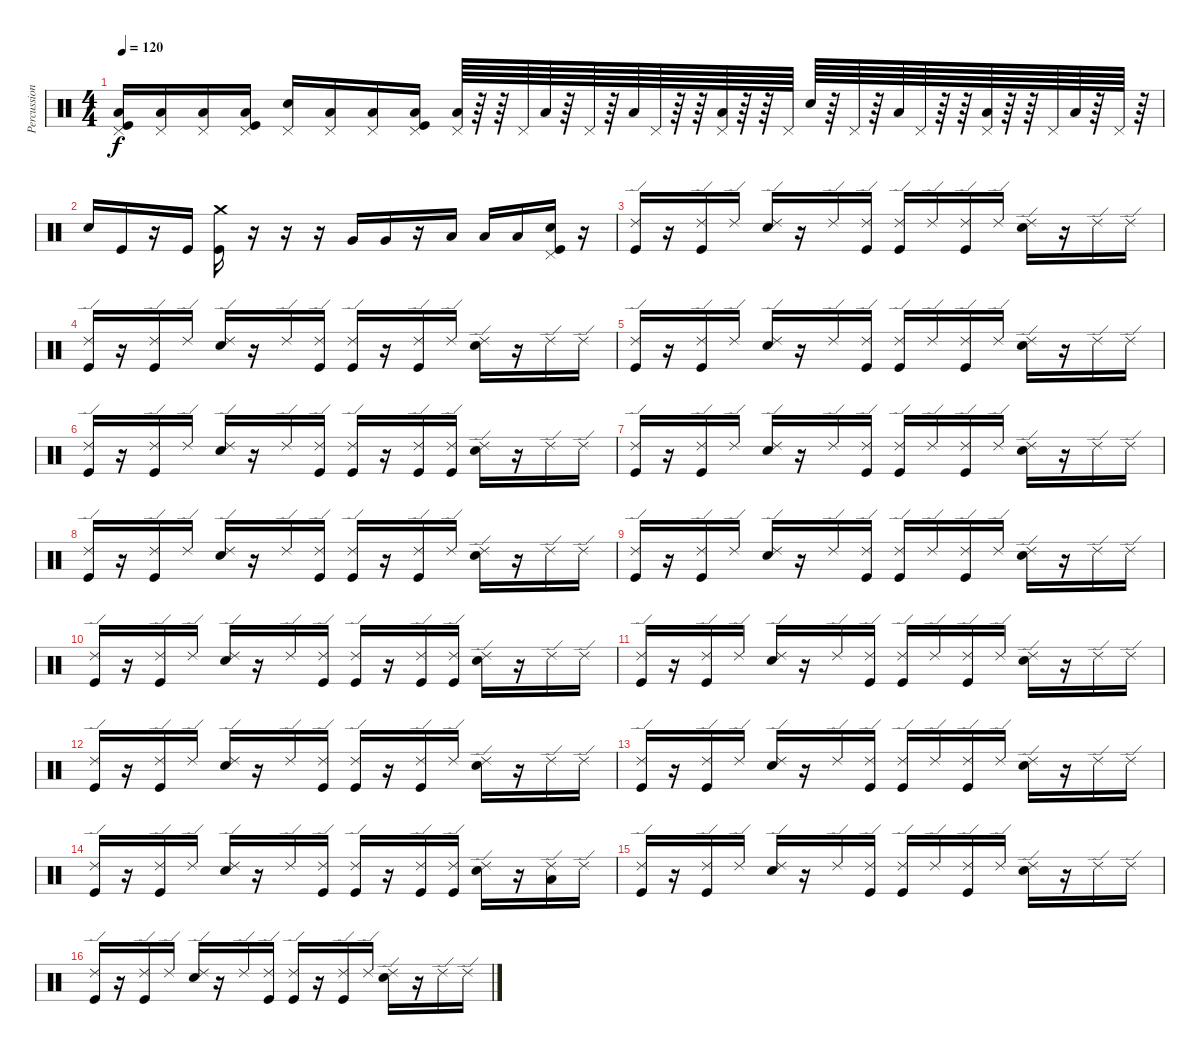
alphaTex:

\track ("Percussion" "Percussion") {instrument percussion}
\staff {score}
\articulation defaults
\ts (4 4)
\tempo 120
\clef neutral
\ks c
("Kick (hit)" "Low Floor Tom (hit)" "Pedal Hi-Hat (hit)").16{dy f} ("Low Floor Tom (hit)" "Pedal Hi-Hat (hit)").16 ("Low Floor Tom (hit)" "Pedal Hi-Hat (hit)").16 ("Kick (hit)" "Low Floor Tom (hit)" "Pedal Hi-Hat (hit)").16 ("Electric Snare (hit)" "Pedal Hi-Hat (hit)").16 ("Low Floor Tom (hit)" "Pedal Hi-Hat (hit)").16 ("Low Floor Tom (hit)" "Pedal Hi-Hat (hit)").16 ("Kick (hit)" "Low Floor Tom (hit)" "Pedal Hi-Hat (hit)").16 ("Low Floor Tom (hit)" "Pedal Hi-Hat (hit)").64 r.64 r.64 "Pedal Hi-Hat (hit)".64 "Low Floor Tom (hit)".64 r.64 "Pedal Hi-Hat (hit)".64 r.64 "Low Floor Tom (hit)".64 "Pedal Hi-Hat (hit)".64 r.64 r.64 ("Low Floor Tom (hit)" "Pedal Hi-Hat (hit)").64 r.64 r.64 "Pedal Hi-Hat (hit)".64 "Electric Snare (hit)".64 r.64 "Pedal Hi-Hat (hit)".64 r.64 "Low Floor Tom (hit)".64 "Pedal Hi-Hat (hit)".64 r.64 r.64 ("Low Floor Tom (hit)" "Pedal Hi-Hat (hit)").64 r.64 r.64 "Pedal Hi-Hat (hit)".64 "Low Floor Tom (hit)".64 r.64 "Pedal Hi-Hat (hit)".64 r.64 |
"Electric Snare (hit)".16 "Kick (hit)".16 r.16 "Kick (hit)".16 ("Kick (hit)" "Crash medium (hit)").16 r.16 r.16 r.16 "Very Low Tom (hit)".16 "Very Low Tom (hit)".16 r.16 "Low Floor Tom (hit)".16 "Low Floor Tom (hit)".16 "Low Floor Tom (hit)".16 ("Kick (hit)" "Electric Snare (hit)" "Pedal Hi-Hat (hit)").16 r.16 |
("Kick (hit)" "Ride (edge) 2").16 r.16 ("Kick (hit)" "Ride (edge) 2").16 "Ride (edge) 2".16 ("Electric Snare (hit)" "Ride (edge) 2").16 r.16 "Ride (edge) 2".16 ("Kick (hit)" "Ride (edge) 2").16 ("Kick (hit)" "Ride (edge) 2").16 "Ride (edge) 2".16 ("Kick (hit)" "Ride (edge) 2").16 "Ride (edge) 2".16 ("Electric Snare (hit)" "Ride (edge) 2").16 r.16 "Ride (edge) 2".16 "Ride (edge) 2".16 |
("Kick (hit)" "Ride (edge) 2").16 r.16 ("Kick (hit)" "Ride (edge) 2").16 "Ride (edge) 2".16 ("Electric Snare (hit)" "Ride (edge) 2").16 r.16 "Ride (edge) 2".16 ("Kick (hit)" "Ride (edge) 2").16 ("Kick (hit)" "Ride (edge) 2").16 r.16 ("Kick (hit)" "Ride (edge) 2").16 "Ride (edge) 2".16 ("Electric Snare (hit)" "Ride (edge) 2").16 r.16 "Ride (edge) 2".16 "Ride (edge) 2".16 |
("Kick (hit)" "Ride (edge) 2").16 r.16 ("Kick (hit)" "Ride (edge) 2").16 "Ride (edge) 2".16 ("Electric Snare (hit)" "Ride (edge) 2").16 r.16 "Ride (edge) 2".16 ("Kick (hit)" "Ride (edge) 2").16 ("Kick (hit)" "Ride (edge) 2").16 "Ride (edge) 2".16 ("Kick (hit)" "Ride (edge) 2").16 "Ride (edge) 2".16 ("Electric Snare (hit)" "Ride (edge) 2").16 r.16 "Ride (edge) 2".16 "Ride (edge) 2".16 |
("Kick (hit)" "Ride (edge) 2").16 r.16 ("Kick (hit)" "Ride (edge) 2").16 "Ride (edge) 2".16 ("Electric Snare (hit)" "Ride (edge) 2").16 r.16 "Ride (edge) 2".16 ("Kick (hit)" "Ride (edge) 2").16 ("Kick (hit)" "Ride (edge) 2").16 r.16 ("Kick (hit)" "Ride (edge) 2").16 ("Kick (hit)" "Ride (edge) 2").16 ("Electric Snare (hit)" "Ride (edge) 2").16 r.16 "Ride (edge) 2".16 "Ride (edge) 2".16 |
("Kick (hit)" "Ride (edge) 2").16 r.16 ("Kick (hit)" "Ride (edge) 2").16 "Ride (edge) 2".16 ("Electric Snare (hit)" "Ride (edge) 2").16 r.16 "Ride (edge) 2".16 ("Kick (hit)" "Ride (edge) 2").16 ("Kick (hit)" "Ride (edge) 2").16 "Ride (edge) 2".16 ("Kick (hit)" "Ride (edge) 2").16 "Ride (edge) 2".16 ("Electric Snare (hit)" "Ride (edge) 2").16 r.16 "Ride (edge) 2".16 "Ride (edge) 2".16 |
("Kick (hit)" "Ride (edge) 2").16 r.16 ("Kick (hit)" "Ride (edge) 2").16 "Ride (edge) 2".16 ("Electric Snare (hit)" "Ride (edge) 2").16 r.16 "Ride (edge) 2".16 ("Kick (hit)" "Ride (edge) 2").16 ("Kick (hit)" "Ride (edge) 2").16 r.16 ("Kick (hit)" "Ride (edge) 2").16 "Ride (edge) 2".16 ("Electric Snare (hit)" "Ride (edge) 2").16 r.16 "Ride (edge) 2".16 "Ride (edge) 2".16 |
("Kick (hit)" "Ride (edge) 2").16 r.16 ("Kick (hit)" "Ride (edge) 2").16 "Ride (edge) 2".16 ("Electric Snare (hit)" "Ride (edge) 2").16 r.16 "Ride (edge) 2".16 ("Kick (hit)" "Ride (edge) 2").16 ("Kick (hit)" "Ride (edge) 2").16 "Ride (edge) 2".16 ("Kick (hit)" "Ride (edge) 2").16 "Ride (edge) 2".16 ("Electric Snare (hit)" "Ride (edge) 2").16 r.16 "Ride (edge) 2".16 "Ride (edge) 2".16 |
("Kick (hit)" "Ride (edge) 2").16 r.16 ("Kick (hit)" "Ride (edge) 2").16 "Ride (edge) 2".16 ("Electric Snare (hit)" "Ride (edge) 2").16 r.16 "Ride (edge) 2".16 ("Kick (hit)" "Ride (edge) 2").16 ("Kick (hit)" "Ride (edge) 2").16 r.16 ("Kick (hit)" "Ride (edge) 2").16 ("Kick (hit)" "Ride (edge) 2").16 ("Electric Snare (hit)" "Ride (edge) 2").16 r.16 "Ride (edge) 2".16 "Ride (edge) 2".16 |
("Kick (hit)" "Ride (edge) 2").16 r.16 ("Kick (hit)" "Ride (edge) 2").16 "Ride (edge) 2".16 ("Electric Snare (hit)" "Ride (edge) 2").16 r.16 "Ride (edge) 2".16 ("Kick (hit)" "Ride (edge) 2").16 ("Kick (hit)" "Ride (edge) 2").16 "Ride (edge) 2".16 ("Kick (hit)" "Ride (edge) 2").16 "Ride (edge) 2".16 ("Electric Snare (hit)" "Ride (edge) 2").16 r.16 "Ride (edge) 2".16 "Ride (edge) 2".16 |
("Kick (hit)" "Ride (edge) 2").16 r.16 ("Kick (hit)" "Ride (edge) 2").16 "Ride (edge) 2".16 ("Electric Snare (hit)" "Ride (edge) 2").16 r.16 "Ride (edge) 2".16 ("Kick (hit)" "Ride (edge) 2").16 ("Kick (hit)" "Ride (edge) 2").16 r.16 ("Kick (hit)" "Ride (edge) 2").16 "Ride (edge) 2".16 ("Electric Snare (hit)" "Ride (edge) 2").16 r.16 "Ride (edge) 2".16 "Ride (edge) 2".16 |
("Kick (hit)" "Ride (edge) 2").16 r.16 ("Kick (hit)" "Ride (edge) 2").16 "Ride (edge) 2".16 ("Electric Snare (hit)" "Ride (edge) 2").16 r.16 "Ride (edge) 2".16 ("Kick (hit)" "Ride (edge) 2").16 ("Kick (hit)" "Ride (edge) 2").16 "Ride (edge) 2".16 ("Kick (hit)" "Ride (edge) 2").16 "Ride (edge) 2".16 ("Electric Snare (hit)" "Ride (edge) 2").16 r.16 "Ride (edge) 2".16 "Ride (edge) 2".16 |
("Kick (hit)" "Ride (edge) 2").16 r.16 ("Kick (hit)" "Ride (edge) 2").16 "Ride (edge) 2".16 ("Electric Snare (hit)" "Ride (edge) 2").16 r.16 "Ride (edge) 2".16 ("Kick (hit)" "Ride (edge) 2").16 ("Kick (hit)" "Ride (edge) 2").16 r.16 ("Kick (hit)" "Ride (edge) 2").16 ("Kick (hit)" "Ride (edge) 2").16 ("Electric Snare (hit)" "Ride (edge) 2").16 r.16 ("Low Floor Tom (hit)" "Ride (edge) 2").16 "Ride (edge) 2".16 |
("Kick (hit)" "Ride (edge) 2").16 r.16 ("Kick (hit)" "Ride (edge) 2").16 "Ride (edge) 2".16 ("Electric Snare (hit)" "Ride (edge) 2").16 r.16 "Ride (edge) 2".16 ("Kick (hit)" "Ride (edge) 2").16 ("Kick (hit)" "Ride (edge) 2").16 "Ride (edge) 2".16 ("Kick (hit)" "Ride (edge) 2").16 "Ride (edge) 2".16 ("Electric Snare (hit)" "Ride (edge) 2").16 r.16 "Ride (edge) 2".16 "Ride (edge) 2".16 |
("Kick (hit)" "Ride (edge) 2").16 r.16 ("Kick (hit)" "Ride (edge) 2").16 "Ride (edge) 2".16 ("Electric Snare (hit)" "Ride (edge) 2").16 r.16 "Ride (edge) 2".16 ("Kick (hit)" "Ride (edge) 2").16 ("Kick (hit)" "Ride (edge) 2").16 r.16 ("Kick (hit)" "Ride (edge) 2").16 "Ride (edge) 2".16 ("Electric Snare (hit)" "Ride (edge) 2").16 r.16 "Ride (edge) 2".16 "Ride (edge) 2".16
